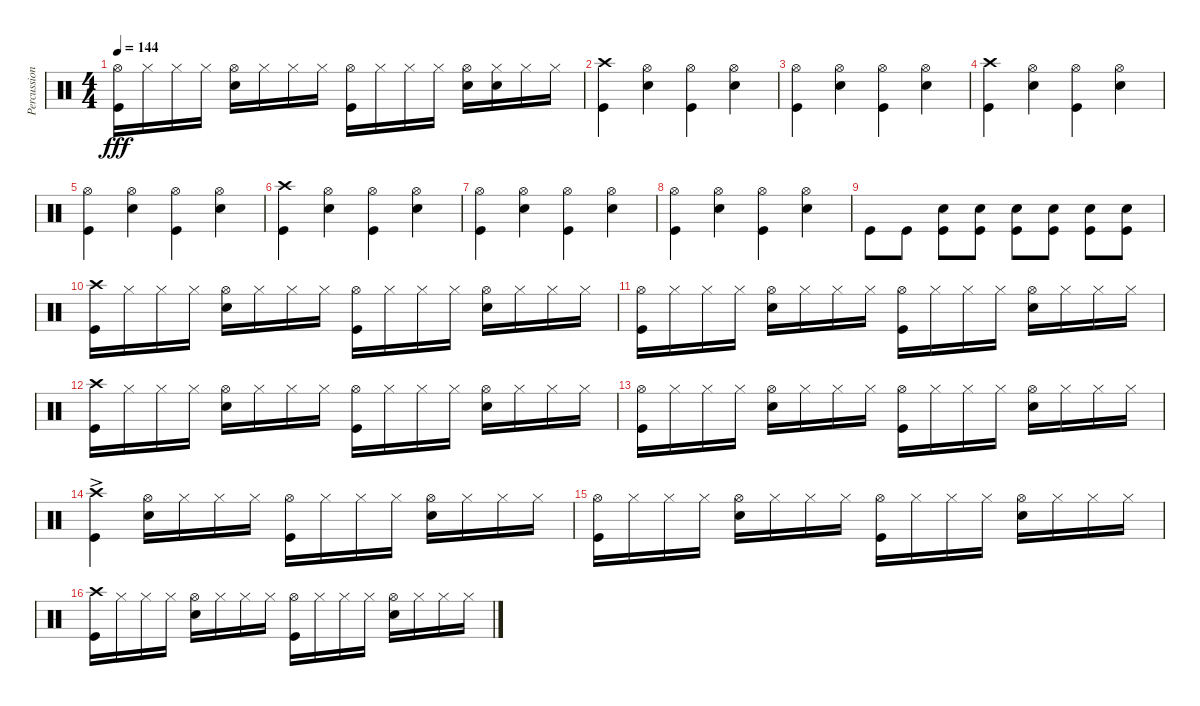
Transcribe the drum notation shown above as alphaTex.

\track ("Percussions" "Percussion") {instrument percussion}
\staff {score}
\articulation defaults
\ts (4 4)
\tempo 144
\clef neutral
\ks c
("Hi-Hat (open)" "Kick (hit)").16{dy fff} "Hi-Hat (closed)".16 "Hi-Hat (closed)".16 "Hi-Hat (closed)".16 ("Hi-Hat (open)" "Snare (hit) 2").16 "Hi-Hat (closed)".16 "Hi-Hat (closed)".16 "Hi-Hat (closed)".16 ("Hi-Hat (open)" "Kick (hit)").16 "Hi-Hat (closed)".16 "Hi-Hat (closed)".16 "Hi-Hat (closed)".16 ("Hi-Hat (open)" "Snare (hit) 2").16 ("Hi-Hat (closed)" "Snare (hit) 2").16 "Hi-Hat (closed)".16 "Hi-Hat (closed)".16 |
("Crash high (hit)" "Kick (hit)").4 ("Hi-Hat (open)" "Snare (hit) 2").4 ("Hi-Hat (open)" "Kick (hit)").4 ("Hi-Hat (open)" "Snare (hit) 2").4 |
("Hi-Hat (open)" "Kick (hit)").4 ("Hi-Hat (open)" "Snare (hit) 2").4 ("Hi-Hat (open)" "Kick (hit)").4 ("Hi-Hat (open)" "Snare (hit) 2").4 |
("Crash high (hit)" "Kick (hit)").4 ("Hi-Hat (open)" "Snare (hit) 2").4 ("Hi-Hat (open)" "Kick (hit)").4 ("Hi-Hat (open)" "Snare (hit) 2").4 |
("Hi-Hat (open)" "Kick (hit)").4 ("Hi-Hat (open)" "Snare (hit) 2").4 ("Hi-Hat (open)" "Kick (hit)").4 ("Hi-Hat (open)" "Snare (hit) 2").4 |
("Crash high (hit)" "Kick (hit)").4 ("Hi-Hat (open)" "Snare (hit) 2").4 ("Hi-Hat (open)" "Kick (hit)").4 ("Hi-Hat (open)" "Snare (hit) 2").4 |
("Hi-Hat (open)" "Kick (hit)").4 ("Hi-Hat (open)" "Snare (hit) 2").4 ("Hi-Hat (open)" "Kick (hit)").4 ("Hi-Hat (open)" "Snare (hit) 2").4 |
("Hi-Hat (open)" "Kick (hit)").4{beam Down} ("Hi-Hat (open)" "Snare (hit) 2").4 ("Hi-Hat (open)" "Kick (hit)").4 ("Hi-Hat (open)" "Snare (hit) 2").4 |
"Kick (hit)".8{beam Down} "Kick (hit)".8{beam Down} ("Snare (hit) 2" "Kick (hit)").8{beam Down} ("Snare (hit) 2" "Kick (hit)").8{beam Down} ("Snare (hit) 2" "Kick (hit)").8{beam Down} ("Snare (hit) 2" "Kick (hit)").8{beam Down} ("Snare (hit) 2" "Kick (hit)").8{beam Down} ("Snare (hit) 2" "Kick (hit)").8{beam Down} |
("Crash high (hit)" "Kick (hit)").16 "Hi-Hat (closed)".16 "Hi-Hat (closed)".16 "Hi-Hat (closed)".16 ("Hi-Hat (open)" "Snare (hit) 2").16 "Hi-Hat (closed)".16 "Hi-Hat (closed)".16 "Hi-Hat (closed)".16 ("Hi-Hat (open)" "Kick (hit)").16 "Hi-Hat (closed)".16 "Hi-Hat (closed)".16 "Hi-Hat (closed)".16 ("Hi-Hat (open)" "Snare (hit) 2").16 "Hi-Hat (closed)".16 "Hi-Hat (closed)".16 "Hi-Hat (closed)".16 |
("Hi-Hat (open)" "Kick (hit)").16 "Hi-Hat (closed)".16 "Hi-Hat (closed)".16 "Hi-Hat (closed)".16 ("Hi-Hat (open)" "Snare (hit) 2").16 "Hi-Hat (closed)".16 "Hi-Hat (closed)".16 "Hi-Hat (closed)".16 ("Hi-Hat (open)" "Kick (hit)").16 "Hi-Hat (closed)".16 "Hi-Hat (closed)".16 "Hi-Hat (closed)".16 ("Hi-Hat (open)" "Snare (hit) 2").16 "Hi-Hat (closed)".16 "Hi-Hat (closed)".16 "Hi-Hat (closed)".16 |
("Crash high (hit)" "Kick (hit)").16 "Hi-Hat (closed)".16 "Hi-Hat (closed)".16 "Hi-Hat (closed)".16 ("Hi-Hat (open)" "Snare (hit) 2").16 "Hi-Hat (closed)".16 "Hi-Hat (closed)".16 "Hi-Hat (closed)".16 ("Hi-Hat (open)" "Kick (hit)").16 "Hi-Hat (closed)".16 "Hi-Hat (closed)".16 "Hi-Hat (closed)".16 ("Hi-Hat (open)" "Snare (hit) 2").16 "Hi-Hat (closed)".16 "Hi-Hat (closed)".16 "Hi-Hat (closed)".16 |
("Hi-Hat (open)" "Kick (hit)").16 "Hi-Hat (closed)".16 "Hi-Hat (closed)".16 "Hi-Hat (closed)".16 ("Hi-Hat (open)" "Snare (hit) 2").16 "Hi-Hat (closed)".16 "Hi-Hat (closed)".16 "Hi-Hat (closed)".16 ("Hi-Hat (open)" "Kick (hit)").16 "Hi-Hat (closed)".16 "Hi-Hat (closed)".16 "Hi-Hat (closed)".16 ("Hi-Hat (open)" "Snare (hit) 2").16 "Hi-Hat (closed)".16 "Hi-Hat (closed)".16 "Hi-Hat (closed)".16 |
("Crash high (hit)" "Kick (hit)"{ac}).4 ("Hi-Hat (open)" "Snare (hit) 2").16 "Hi-Hat (closed)".16 "Hi-Hat (closed)".16 "Hi-Hat (closed)".16 ("Hi-Hat (open)" "Kick (hit)").16 "Hi-Hat (closed)".16 "Hi-Hat (closed)".16 "Hi-Hat (closed)".16 ("Hi-Hat (open)" "Snare (hit) 2").16 "Hi-Hat (closed)".16 "Hi-Hat (closed)".16 "Hi-Hat (closed)".16 |
("Hi-Hat (open)" "Kick (hit)").16 "Hi-Hat (closed)".16 "Hi-Hat (closed)".16 "Hi-Hat (closed)".16 ("Hi-Hat (open)" "Snare (hit) 2").16 "Hi-Hat (closed)".16 "Hi-Hat (closed)".16 "Hi-Hat (closed)".16 ("Hi-Hat (open)" "Kick (hit)").16 "Hi-Hat (closed)".16 "Hi-Hat (closed)".16 "Hi-Hat (closed)".16 ("Hi-Hat (open)" "Snare (hit) 2").16 "Hi-Hat (closed)".16 "Hi-Hat (closed)".16 "Hi-Hat (closed)".16 |
("Crash high (hit)" "Kick (hit)").16 "Hi-Hat (closed)".16 "Hi-Hat (closed)".16 "Hi-Hat (closed)".16 ("Hi-Hat (open)" "Snare (hit) 2").16 "Hi-Hat (closed)".16 "Hi-Hat (closed)".16 "Hi-Hat (closed)".16 ("Hi-Hat (open)" "Kick (hit)").16 "Hi-Hat (closed)".16 "Hi-Hat (closed)".16 "Hi-Hat (closed)".16 ("Hi-Hat (open)" "Snare (hit) 2").16 "Hi-Hat (closed)".16 "Hi-Hat (closed)".16 "Hi-Hat (closed)".16
